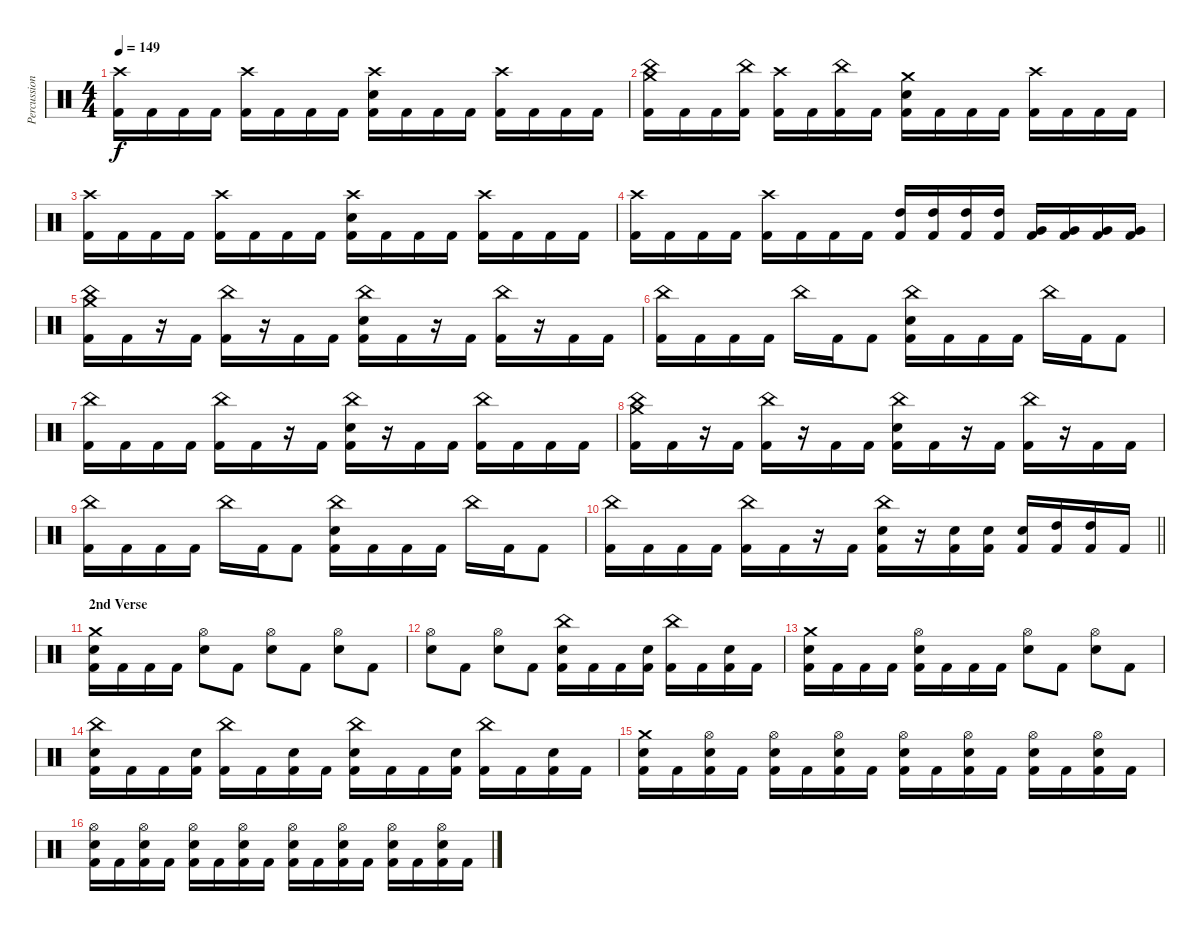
\track ("Percussions" "Percussion") {instrument percussion}
\staff {score}
\articulation defaults
\ts (4 4)
\tempo 149
\clef neutral
\ks c
("Crash high (hit)" "Kick (hit) 2").16{dy f} "Kick (hit) 2".16 "Kick (hit) 2".16 "Kick (hit) 2".16 ("Crash high (hit)" "Kick (hit) 2").16 "Kick (hit) 2".16 "Kick (hit) 2".16 "Kick (hit) 2".16 ("Crash high (hit)" "Snare (hit) 2" "Kick (hit) 2").16 "Kick (hit) 2".16 "Kick (hit) 2".16 "Kick (hit) 2".16 ("Crash high (hit)" "Kick (hit) 2").16 "Kick (hit) 2".16 "Kick (hit) 2".16 "Kick (hit) 2".16 |
("Crash medium (hit)" "China (hit)" "Kick (hit) 2").16 "Kick (hit) 2".16 "Kick (hit) 2".16 ("China (hit)" "Kick (hit) 2").16 ("Crash high (hit)" "Kick (hit) 2").16 "Kick (hit) 2".16 ("China (hit)" "Kick (hit) 2").16 "Kick (hit) 2".16 ("Crash medium (hit)" "Snare (hit) 2" "Kick (hit) 2").16 "Kick (hit) 2".16 "Kick (hit) 2".16 "Kick (hit) 2".16 ("Crash high (hit)" "Kick (hit) 2").16 "Kick (hit) 2".16 "Kick (hit) 2".16 "Kick (hit) 2".16 |
("Crash high (hit)" "Kick (hit) 2").16 "Kick (hit) 2".16 "Kick (hit) 2".16 "Kick (hit) 2".16 ("Crash high (hit)" "Kick (hit) 2").16 "Kick (hit) 2".16 "Kick (hit) 2".16 "Kick (hit) 2".16 ("Crash high (hit)" "Snare (hit) 2" "Kick (hit) 2").16 "Kick (hit) 2".16 "Kick (hit) 2".16 "Kick (hit) 2".16 ("Crash high (hit)" "Kick (hit) 2").16 "Kick (hit) 2".16 "Kick (hit) 2".16 "Kick (hit) 2".16 |
("Crash high (hit)" "Kick (hit) 2").16 "Kick (hit) 2".16 "Kick (hit) 2".16 "Kick (hit) 2".16 ("Crash high (hit)" "Kick (hit) 2").16 "Kick (hit) 2".16 "Kick (hit) 2".16 "Kick (hit) 2".16 ("High Tom (hit)" "Kick (hit) 2").16 ("High Tom (hit)" "Kick (hit) 2").16 ("High Tom (hit)" "Kick (hit) 2").16 ("High Tom (hit)" "Kick (hit) 2").16 ("Very Low Tom (hit)" "Kick (hit) 2").16 ("Very Low Tom (hit)" "Kick (hit) 2").16 ("Very Low Tom (hit)" "Kick (hit) 2").16 ("Very Low Tom (hit)" "Kick (hit) 2").16 |
("China (hit)" "Crash medium (hit)" "Kick (hit) 2").16 "Kick (hit) 2".16 r.16 "Kick (hit) 2".16 ("China (hit)" "Kick (hit) 2").16 r.16 "Kick (hit) 2".16 "Kick (hit) 2".16 ("China (hit)" "Snare (hit) 2" "Kick (hit) 2").16 "Kick (hit) 2".16 r.16 "Kick (hit) 2".16 ("China (hit)" "Kick (hit) 2").16 r.16 "Kick (hit) 2".16 "Kick (hit) 2".16 |
("China (hit)" "Kick (hit) 2").16 "Kick (hit) 2".16 "Kick (hit) 2".16 "Kick (hit) 2".16 "China (hit)".16 "Kick (hit) 2".16 "Kick (hit) 2".8 ("China (hit)" "Snare (hit) 2" "Kick (hit) 2").16 "Kick (hit) 2".16 "Kick (hit) 2".16 "Kick (hit) 2".16 "China (hit)".16 "Kick (hit) 2".16 "Kick (hit) 2".8 |
("China (hit)" "Kick (hit) 2").16 "Kick (hit) 2".16 "Kick (hit) 2".16 "Kick (hit) 2".16 ("China (hit)" "Kick (hit) 2").16 "Kick (hit) 2".16 r.16 "Kick (hit) 2".16 ("China (hit)" "Snare (hit) 2" "Kick (hit) 2").16 r.16 "Kick (hit) 2".16 "Kick (hit) 2".16 ("China (hit)" "Kick (hit) 2").16 "Kick (hit) 2".16 "Kick (hit) 2".16 "Kick (hit) 2".16 |
("China (hit)" "Crash medium (hit)" "Kick (hit) 2").16 "Kick (hit) 2".16 r.16 "Kick (hit) 2".16 ("China (hit)" "Kick (hit) 2").16 r.16 "Kick (hit) 2".16 "Kick (hit) 2".16 ("China (hit)" "Snare (hit) 2" "Kick (hit) 2").16 "Kick (hit) 2".16 r.16 "Kick (hit) 2".16 ("China (hit)" "Kick (hit) 2").16 r.16 "Kick (hit) 2".16 "Kick (hit) 2".16 |
("China (hit)" "Kick (hit) 2").16 "Kick (hit) 2".16 "Kick (hit) 2".16 "Kick (hit) 2".16 "China (hit)".16 "Kick (hit) 2".16 "Kick (hit) 2".8 ("China (hit)" "Snare (hit) 2" "Kick (hit) 2").16 "Kick (hit) 2".16 "Kick (hit) 2".16 "Kick (hit) 2".16 "China (hit)".16 "Kick (hit) 2".16 "Kick (hit) 2".8 |
\barLineRight lightlight
("China (hit)" "Kick (hit) 2").16 "Kick (hit) 2".16 "Kick (hit) 2".16 "Kick (hit) 2".16 ("China (hit)" "Kick (hit) 2").16 "Kick (hit) 2".16 r.16 "Kick (hit) 2".16 ("China (hit)" "Snare (hit) 2" "Kick (hit) 2").16 r.16 ("Snare (hit) 2" "Kick (hit) 2").16 ("Snare (hit) 2" "Kick (hit) 2").16 ("Snare (hit) 2" "Kick (hit) 2").16 ("High Tom (hit)" "Kick (hit) 2").16 ("High Tom (hit)" "Kick (hit) 2").16 "Kick (hit) 2".16 |
\section ("" "2nd Verse")
("Crash medium (hit)" "Snare (hit) 2" "Kick (hit) 2").16 "Kick (hit) 2".16 "Kick (hit) 2".16 "Kick (hit) 2".16 ("Hi-Hat (open)" "Snare (hit) 2").8 "Kick (hit) 2".8 ("Hi-Hat (open)" "Snare (hit) 2").8 "Kick (hit) 2".8 ("Hi-Hat (open)" "Snare (hit) 2").8 "Kick (hit) 2".8 |
("Hi-Hat (open)" "Snare (hit) 2").8 "Kick (hit) 2".8 ("Hi-Hat (open)" "Snare (hit) 2").8 "Kick (hit) 2".8 ("China (hit)" "Snare (hit) 2" "Kick (hit) 2").16 "Kick (hit) 2".16 "Kick (hit) 2".16 ("Snare (hit) 2" "Kick (hit) 2").16 ("China (hit)" "Kick (hit) 2").16 "Kick (hit) 2".16 ("Snare (hit) 2" "Kick (hit) 2").16 "Kick (hit) 2".16 |
("Crash medium (hit)" "Snare (hit) 2" "Kick (hit) 2").16 "Kick (hit) 2".16 "Kick (hit) 2".16 "Kick (hit) 2".16 ("Hi-Hat (open)" "Snare (hit) 2" "Kick (hit) 2").16 "Kick (hit) 2".16 "Kick (hit) 2".16 "Kick (hit) 2".16 ("Hi-Hat (open)" "Snare (hit) 2").8 "Kick (hit) 2".8 ("Hi-Hat (open)" "Snare (hit) 2").8 "Kick (hit) 2".8 |
("China (hit)" "Snare (hit) 2" "Kick (hit) 2").16 "Kick (hit) 2".16 "Kick (hit) 2".16 ("Snare (hit) 2" "Kick (hit) 2").16 ("China (hit)" "Kick (hit) 2").16 "Kick (hit) 2".16 ("Snare (hit) 2" "Kick (hit) 2").16 "Kick (hit) 2".16 ("China (hit)" "Snare (hit) 2" "Kick (hit) 2").16 "Kick (hit) 2".16 "Kick (hit) 2".16 ("Snare (hit) 2" "Kick (hit) 2").16 ("China (hit)" "Kick (hit) 2").16 "Kick (hit) 2".16 ("Snare (hit) 2" "Kick (hit) 2").16 "Kick (hit) 2".16 |
("Crash medium (hit)" "Snare (hit) 2" "Kick (hit) 2").16 "Kick (hit) 2".16 ("Hi-Hat (open)" "Snare (hit) 2" "Kick (hit) 2").16 "Kick (hit) 2".16 ("Hi-Hat (open)" "Snare (hit) 2" "Kick (hit) 2").16 "Kick (hit) 2".16 ("Hi-Hat (open)" "Snare (hit) 2" "Kick (hit) 2").16 "Kick (hit) 2".16 ("Hi-Hat (open)" "Snare (hit) 2" "Kick (hit) 2").16 "Kick (hit) 2".16 ("Hi-Hat (open)" "Snare (hit) 2" "Kick (hit) 2").16 "Kick (hit) 2".16 ("Hi-Hat (open)" "Snare (hit) 2" "Kick (hit) 2").16 "Kick (hit) 2".16 ("Hi-Hat (open)" "Snare (hit) 2" "Kick (hit) 2").16 "Kick (hit) 2".16 |
("Hi-Hat (open)" "Snare (hit) 2" "Kick (hit) 2").16 "Kick (hit) 2".16 ("Hi-Hat (open)" "Snare (hit) 2" "Kick (hit) 2").16 "Kick (hit) 2".16 ("Hi-Hat (open)" "Snare (hit) 2" "Kick (hit) 2").16 "Kick (hit) 2".16 ("Hi-Hat (open)" "Snare (hit) 2" "Kick (hit) 2").16 "Kick (hit) 2".16 ("Hi-Hat (open)" "Snare (hit) 2" "Kick (hit) 2").16 "Kick (hit) 2".16 ("Hi-Hat (open)" "Snare (hit) 2" "Kick (hit) 2").16 "Kick (hit) 2".16 ("Hi-Hat (open)" "Snare (hit) 2" "Kick (hit) 2").16 "Kick (hit) 2".16 ("Hi-Hat (open)" "Snare (hit) 2" "Kick (hit) 2").16 "Kick (hit) 2".16
